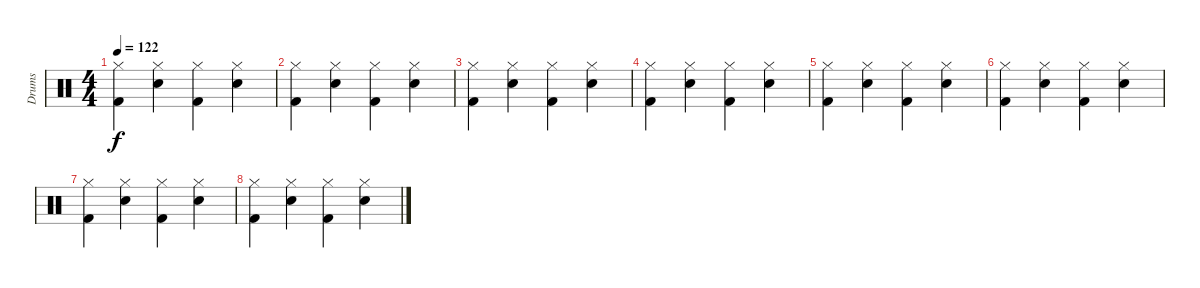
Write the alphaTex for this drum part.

\track ("Drums" "Drums") {instrument percussion}
\staff {score}
\articulation defaults
\ts (4 4)
\tempo 122
\clef neutral
\ks c
("Hi-Hat (closed)" "Kick (hit) 2").4{dy f} ("Hi-Hat (closed)" "Snare (hit) 2").4 ("Hi-Hat (closed)" "Kick (hit) 2").4 ("Hi-Hat (closed)" "Snare (hit) 2").4 |
("Hi-Hat (closed)" "Kick (hit) 2").4 ("Hi-Hat (closed)" "Snare (hit) 2").4 ("Hi-Hat (closed)" "Kick (hit) 2").4 ("Hi-Hat (closed)" "Snare (hit) 2").4 |
("Hi-Hat (closed)" "Kick (hit) 2").4 ("Hi-Hat (closed)" "Snare (hit) 2").4 ("Hi-Hat (closed)" "Kick (hit) 2").4 ("Hi-Hat (closed)" "Snare (hit) 2").4 |
("Hi-Hat (closed)" "Kick (hit) 2").4 ("Hi-Hat (closed)" "Snare (hit) 2").4 ("Hi-Hat (closed)" "Kick (hit) 2").4 ("Hi-Hat (closed)" "Snare (hit) 2").4 |
("Hi-Hat (closed)" "Kick (hit) 2").4 ("Hi-Hat (closed)" "Snare (hit) 2").4 ("Hi-Hat (closed)" "Kick (hit) 2").4 ("Hi-Hat (closed)" "Snare (hit) 2").4 |
("Hi-Hat (closed)" "Kick (hit) 2").4 ("Hi-Hat (closed)" "Snare (hit) 2").4 ("Hi-Hat (closed)" "Kick (hit) 2").4 ("Hi-Hat (closed)" "Snare (hit) 2").4 |
("Hi-Hat (closed)" "Kick (hit) 2").4 ("Hi-Hat (closed)" "Snare (hit) 2").4 ("Hi-Hat (closed)" "Kick (hit) 2").4 ("Hi-Hat (closed)" "Snare (hit) 2").4 |
("Hi-Hat (closed)" "Kick (hit) 2").4 ("Hi-Hat (closed)" "Snare (hit) 2").4 ("Hi-Hat (closed)" "Kick (hit) 2").4 ("Hi-Hat (closed)" "Snare (hit) 2").4
